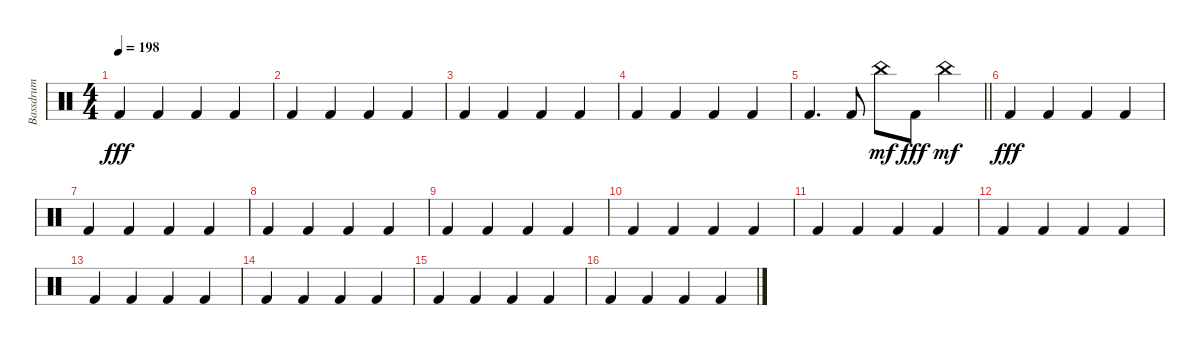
\track ("Bassdrum" "Bassdrum") {instrument percussion}
\staff {score}
\articulation defaults
\ts (4 4)
\tempo 198
\clef neutral
\ks c "Kick (hit) 2".4{dy fff} "Kick (hit) 2".4 "Kick (hit) 2".4 "Kick (hit) 2".4
|
"Kick (hit) 2".4 "Kick (hit) 2".4 "Kick (hit) 2".4 "Kick (hit) 2".4 |
"Kick (hit) 2".4 "Kick (hit) 2".4 "Kick (hit) 2".4 "Kick (hit) 2".4 |
"Kick (hit) 2".4 "Kick (hit) 2".4 "Kick (hit) 2".4 "Kick (hit) 2".4 |
\barLineRight lightlight "Kick (hit) 2".4{d} "Kick (hit) 2".8 "China (hit)".8{dy mf} "Kick (hit) 2".8{dy fff} "China (hit)".4{dy mf}
|
\section ("" "")
"Kick (hit) 2".4{dy fff} "Kick (hit) 2".4 "Kick (hit) 2".4 "Kick (hit) 2".4 |
"Kick (hit) 2".4 "Kick (hit) 2".4 "Kick (hit) 2".4 "Kick (hit) 2".4 |
"Kick (hit) 2".4 "Kick (hit) 2".4 "Kick (hit) 2".4 "Kick (hit) 2".4 |
"Kick (hit) 2".4 "Kick (hit) 2".4 "Kick (hit) 2".4 "Kick (hit) 2".4 |
"Kick (hit) 2".4 "Kick (hit) 2".4 "Kick (hit) 2".4 "Kick (hit) 2".4 |
"Kick (hit) 2".4 "Kick (hit) 2".4 "Kick (hit) 2".4 "Kick (hit) 2".4 |
"Kick (hit) 2".4 "Kick (hit) 2".4 "Kick (hit) 2".4 "Kick (hit) 2".4 |
"Kick (hit) 2".4 "Kick (hit) 2".4 "Kick (hit) 2".4 "Kick (hit) 2".4 |
"Kick (hit) 2".4 "Kick (hit) 2".4 "Kick (hit) 2".4 "Kick (hit) 2".4 |
"Kick (hit) 2".4 "Kick (hit) 2".4 "Kick (hit) 2".4 "Kick (hit) 2".4 |
"Kick (hit) 2".4 "Kick (hit) 2".4 "Kick (hit) 2".4 "Kick (hit) 2".4
